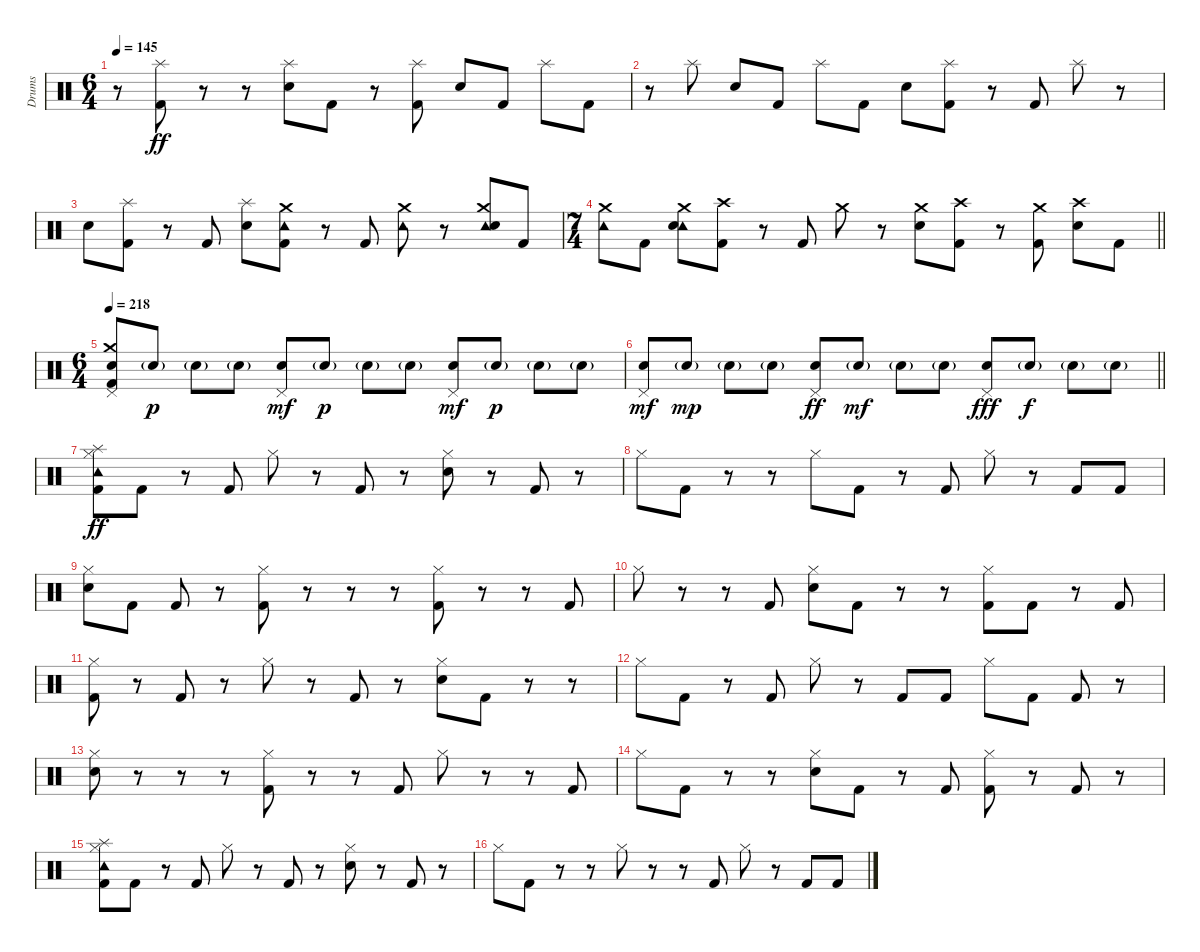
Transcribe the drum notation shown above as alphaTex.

\track ("Drums" "Drums") {instrument percussion}
\staff {score}
\articulation defaults
\ts (6 4)
\tempo 145
\clef neutral
\ks c
r.8{dy ff} ("Splash (hit)" "Kick (hit) 2").8 r.8 r.8 ("Splash (hit)" "Electric Snare (hit)").8 "Kick (hit) 2".8 r.8 ("Splash (hit)" "Kick (hit) 2").8 "Electric Snare (hit)".8 "Kick (hit) 2".8 "Splash (hit)".8 "Kick (hit) 2".8 |
r.8 "Splash (hit)".8 "Electric Snare (hit)".8 "Kick (hit) 2".8 "Splash (hit)".8 "Kick (hit) 2".8 "Electric Snare (hit)".8 ("Splash (hit)" "Kick (hit) 2").8 r.8 "Kick (hit) 2".8 "Splash (hit)".8 r.8 |
"Electric Snare (hit)".8 ("Splash (hit)" "Kick (hit) 2").8 r.8 "Kick (hit) 2".8 ("Splash (hit)" "Electric Snare (hit)").8 ("Crash medium (hit)" "Tambourine (hit)" "Kick (hit) 2").8 r.8 "Kick (hit) 2".8 ("Crash medium (hit)" "Tambourine (hit)").8 r.8 ("Crash medium (hit)" "Tambourine (hit)" "Electric Snare (hit)").8 "Kick (hit) 2".8 |
\ts (7 4)
\barLineRight lightlight
("Crash medium (hit)" "Tambourine (hit)").8 "Kick (hit) 2".8 ("Crash medium (hit)" "Tambourine (hit)" "Electric Snare (hit)").8 ("Crash high (hit)" "Kick (hit) 2").8 r.8 "Kick (hit) 2".8 "Crash medium (hit)".8 r.8 ("Crash medium (hit)" "Electric Snare (hit)").8 ("Crash high (hit)" "Kick (hit) 2").8 r.8 ("Crash medium (hit)" "Kick (hit) 2").8 ("Crash high (hit)" "Electric Snare (hit)").8 "Kick (hit) 2".8 |
\ts (6 4)
\section ("" "")
\tempo 218
("Crash medium (hit)" "Pedal Hi-Hat (hit)" "Electric Snare (hit)" "Kick (hit) 2").8 "Electric Snare (hit)"{g}.8{dy p} "Electric Snare (hit)"{g}.8 "Electric Snare (hit)"{g}.8 ("Pedal Hi-Hat (hit)" "Electric Snare (hit)").8{dy mf} "Electric Snare (hit)"{g}.8{dy p} "Electric Snare (hit)"{g}.8 "Electric Snare (hit)"{g}.8 ("Pedal Hi-Hat (hit)" "Electric Snare (hit)").8{dy mf} "Electric Snare (hit)"{g}.8{dy p} "Electric Snare (hit)"{g}.8 "Electric Snare (hit)"{g}.8 |
\barLineRight lightlight
("Pedal Hi-Hat (hit)" "Electric Snare (hit)").8{dy mf} "Electric Snare (hit)"{g}.8{dy mp} "Electric Snare (hit)"{g}.8 "Electric Snare (hit)"{g}.8 ("Pedal Hi-Hat (hit)" "Electric Snare (hit)").8{dy ff} "Electric Snare (hit)"{g}.8{dy mf} "Electric Snare (hit)"{g}.8 "Electric Snare (hit)"{g}.8 ("Pedal Hi-Hat (hit)" "Electric Snare (hit)").8{dy fff} "Electric Snare (hit)"{g}.8{dy f} "Electric Snare (hit)"{g}.8 "Electric Snare (hit)"{g}.8 |
\section ("" "")
("Tambourine (hit)" "Splash (hit)" "Hi-Hat (closed)" "Kick (hit) 2").8{dy ff} "Kick (hit) 2".8 r.8 "Kick (hit) 2".8 "Hi-Hat (closed)".8 r.8 "Kick (hit) 2".8 r.8 ("Hi-Hat (closed)" "Electric Snare (hit)").8 r.8 "Kick (hit) 2".8 r.8 |
"Hi-Hat (closed)".8 "Kick (hit) 2".8 r.8 r.8 "Hi-Hat (closed)".8 "Kick (hit) 2".8 r.8 "Kick (hit) 2".8 "Hi-Hat (closed)".8 r.8 "Kick (hit) 2".8 "Kick (hit) 2".8 |
("Hi-Hat (closed)" "Electric Snare (hit)").8 "Kick (hit) 2".8 "Kick (hit) 2".8 r.8 ("Hi-Hat (closed)" "Kick (hit) 2").8 r.8 r.8 r.8 ("Hi-Hat (closed)" "Kick (hit) 2").8 r.8 r.8 "Kick (hit) 2".8 |
"Hi-Hat (closed)".8 r.8 r.8 "Kick (hit) 2".8 ("Hi-Hat (closed)" "Electric Snare (hit)").8 "Kick (hit) 2".8 r.8 r.8 ("Hi-Hat (closed)" "Kick (hit) 2").8 "Kick (hit) 2".8 r.8 "Kick (hit) 2".8 |
("Hi-Hat (closed)" "Kick (hit) 2").8 r.8 "Kick (hit) 2".8 r.8 "Hi-Hat (closed)".8 r.8 "Kick (hit) 2".8 r.8 ("Hi-Hat (closed)" "Electric Snare (hit)").8 "Kick (hit) 2".8 r.8 r.8 |
"Hi-Hat (closed)".8 "Kick (hit) 2".8 r.8 "Kick (hit) 2".8 "Hi-Hat (closed)".8 r.8 "Kick (hit) 2".8 "Kick (hit) 2".8 "Hi-Hat (closed)".8 "Kick (hit) 2".8 "Kick (hit) 2".8 r.8 |
("Hi-Hat (closed)" "Electric Snare (hit)").8 r.8 r.8 r.8 ("Hi-Hat (closed)" "Kick (hit) 2").8 r.8 r.8 "Kick (hit) 2".8 "Hi-Hat (closed)".8 r.8 r.8 "Kick (hit) 2".8 |
"Hi-Hat (closed)".8 "Kick (hit) 2".8 r.8 r.8 ("Hi-Hat (closed)" "Electric Snare (hit)").8 "Kick (hit) 2".8 r.8 "Kick (hit) 2".8 ("Hi-Hat (closed)" "Kick (hit) 2").8 r.8 "Kick (hit) 2".8 r.8 |
("Tambourine (hit)" "Splash (hit)" "Hi-Hat (closed)" "Kick (hit) 2").8 "Kick (hit) 2".8 r.8 "Kick (hit) 2".8 "Hi-Hat (closed)".8 r.8 "Kick (hit) 2".8 r.8 ("Hi-Hat (closed)" "Electric Snare (hit)").8 r.8 "Kick (hit) 2".8 r.8 |
"Hi-Hat (closed)".8 "Kick (hit) 2".8 r.8 r.8 "Hi-Hat (closed)".8 r.8 r.8 "Kick (hit) 2".8 "Hi-Hat (closed)".8 r.8 "Kick (hit) 2".8 "Kick (hit) 2".8
